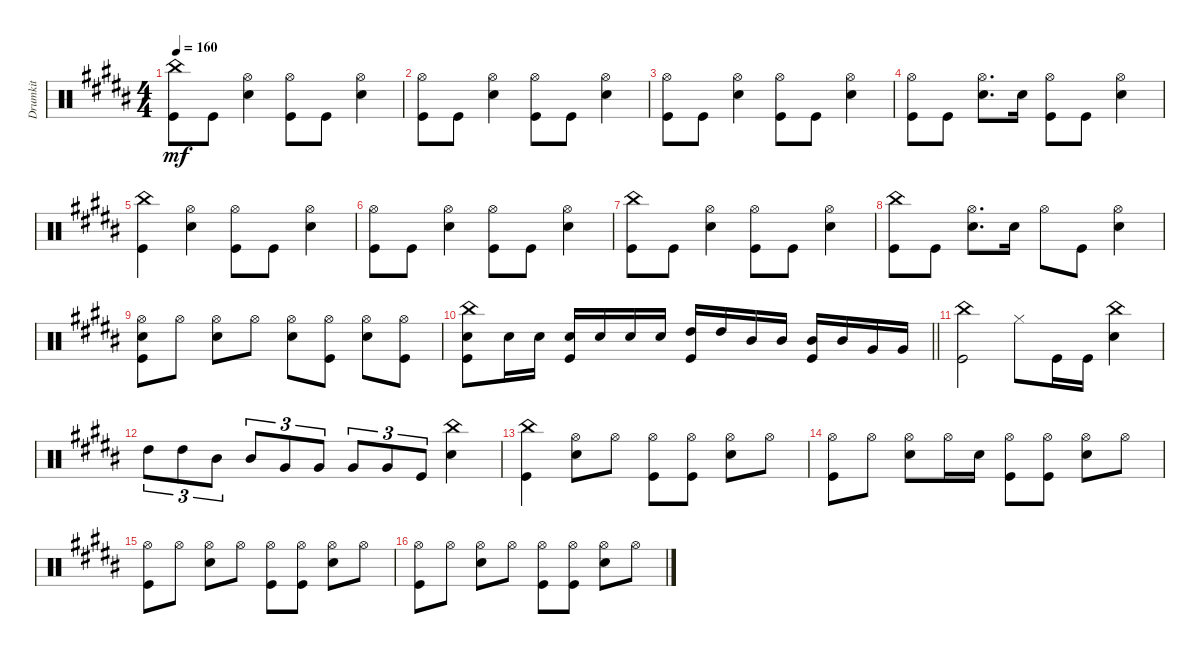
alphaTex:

\track ("Drumkit" "Drumkit") {instrument percussion}
\staff {score}
\articulation defaults
\ts (4 4)
\tempo 160
\clef neutral
\ks b
("China (hit)" "Kick (hit)").8{dy mf} "Kick (hit)".8 ("Snare (hit) 2" "Hi-Hat (open)").4 ("Hi-Hat (open)" "Kick (hit)").8 "Kick (hit)".8 ("Snare (hit) 2" "Hi-Hat (open)").4 |
("Kick (hit)" "Hi-Hat (open)").8 "Kick (hit)".8 ("Hi-Hat (open)" "Snare (hit) 2").4 ("Kick (hit)" "Hi-Hat (open)").8 "Kick (hit)".8 ("Hi-Hat (open)" "Snare (hit) 2").4 |
("Kick (hit)" "Hi-Hat (open)").8 "Kick (hit)".8 ("Hi-Hat (open)" "Snare (hit) 2").4 ("Kick (hit)" "Hi-Hat (open)").8 "Kick (hit)".8 ("Hi-Hat (open)" "Snare (hit) 2").4 |
("Kick (hit)" "Hi-Hat (open)").8 "Kick (hit)".8 ("Hi-Hat (open)" "Snare (hit) 2").8{d} "Snare (hit) 2".16 ("Hi-Hat (open)" "Kick (hit)").8 "Kick (hit)".8 ("Snare (hit) 2" "Hi-Hat (open)").4 |
("Kick (hit)" "China (hit)").4 ("Hi-Hat (open)" "Snare (hit) 2").4 ("Hi-Hat (open)" "Kick (hit)").8 "Kick (hit)".8 ("Snare (hit) 2" "Hi-Hat (open)").4 |
("Hi-Hat (open)" "Kick (hit)").8 "Kick (hit)".8 ("Snare (hit) 2" "Hi-Hat (open)").4 ("Hi-Hat (open)" "Kick (hit)").8 "Kick (hit)".8 ("Snare (hit) 2" "Hi-Hat (open)").4 |
("China (hit)" "Kick (hit)").8 "Kick (hit)".8 ("Snare (hit) 2" "Hi-Hat (open)").4 ("Hi-Hat (open)" "Kick (hit)").8 "Kick (hit)".8 ("Hi-Hat (open)" "Snare (hit) 2").4 |
("China (hit)" "Kick (hit)").8 "Kick (hit)".8 ("Snare (hit) 2" "Hi-Hat (open)").8{d} "Snare (hit) 2".16 "Hi-Hat (open)".8 "Kick (hit)".8 ("Snare (hit) 2" "Hi-Hat (open)").4 |
("Hi-Hat (open)" "Snare (hit) 2" "Kick (hit)").8 "Hi-Hat (open)".8 ("Hi-Hat (open)" "Snare (hit) 2").8 "Hi-Hat (open)".8 ("Hi-Hat (open)" "Snare (hit) 2").8 ("Hi-Hat (open)" "Kick (hit)").8 ("Hi-Hat (open)" "Snare (hit) 2").8 ("Hi-Hat (open)" "Kick (hit)").8 |
\barLineRight lightlight
("Kick (hit)" "Snare (hit) 2" "China (hit)").8 "Snare (hit) 2".16 "Snare (hit) 2".16 ("Snare (hit) 2" "Kick (hit)").16 "Snare (hit) 2".16 "Snare (hit) 2".16 "Snare (hit) 2".16 ("High Tom (hit)" "Kick (hit)").16 "High Tom (hit)".16 "Mid Tom (hit)".16 "Mid Tom (hit)".16 ("Mid Tom (hit)" "Kick (hit)").16 "Mid Tom (hit)".16 "Very Low Tom (hit)".16 "Very Low Tom (hit)".16 |
\section ("" "")
("China (hit)" "Kick (hit)").2 "Hi-Hat (closed)".8 "Kick (hit)".16 "Kick (hit)".16 ("Snare (hit) 2" "China (hit)").4 |
"High Tom (hit)".8{tu (3 2)} "High Tom (hit)".8{tu (3 2)} "Mid Tom (hit)".8{tu (3 2)} "Mid Tom (hit)".8{tu (3 2)} "Very Low Tom (hit)".8{tu (3 2)} "Very Low Tom (hit)".8{tu (3 2)} "Very Low Tom (hit)".8{tu (3 2)} "Very Low Tom (hit)".8{tu (3 2)} "Kick (hit)".8{tu (3 2)} ("Snare (hit) 2" "China (hit)").4 |
("China (hit)" "Kick (hit)").4 ("Snare (hit) 2" "Hi-Hat (open)").8 "Hi-Hat (open)".8 ("Hi-Hat (open)" "Kick (hit)").8 ("Kick (hit)" "Hi-Hat (open)").8 ("Hi-Hat (open)" "Snare (hit) 2").8 "Hi-Hat (open)".8 |
("Hi-Hat (open)" "Kick (hit)").8 "Hi-Hat (open)".8 ("Hi-Hat (open)" "Snare (hit) 2").8 "Hi-Hat (open)".16 "Snare (hit) 2".16 ("Kick (hit)" "Hi-Hat (open)").8 ("Kick (hit)" "Hi-Hat (open)").8 ("Hi-Hat (open)" "Snare (hit) 2").8 "Hi-Hat (open)".8 |
("Hi-Hat (open)" "Kick (hit)").8 "Hi-Hat (open)".8 ("Hi-Hat (open)" "Snare (hit) 2").8 "Hi-Hat (open)".8 ("Hi-Hat (open)" "Kick (hit)").8 ("Hi-Hat (open)" "Kick (hit)").8 ("Hi-Hat (open)" "Snare (hit) 2").8 "Hi-Hat (open)".8 |
("Kick (hit)" "Hi-Hat (open)").8 "Hi-Hat (open)".8 ("Hi-Hat (open)" "Snare (hit) 2").8 "Hi-Hat (open)".8 ("Hi-Hat (open)" "Kick (hit)").8 ("Hi-Hat (open)" "Kick (hit)").8 ("Hi-Hat (open)" "Snare (hit) 2").8 "Hi-Hat (open)".8
